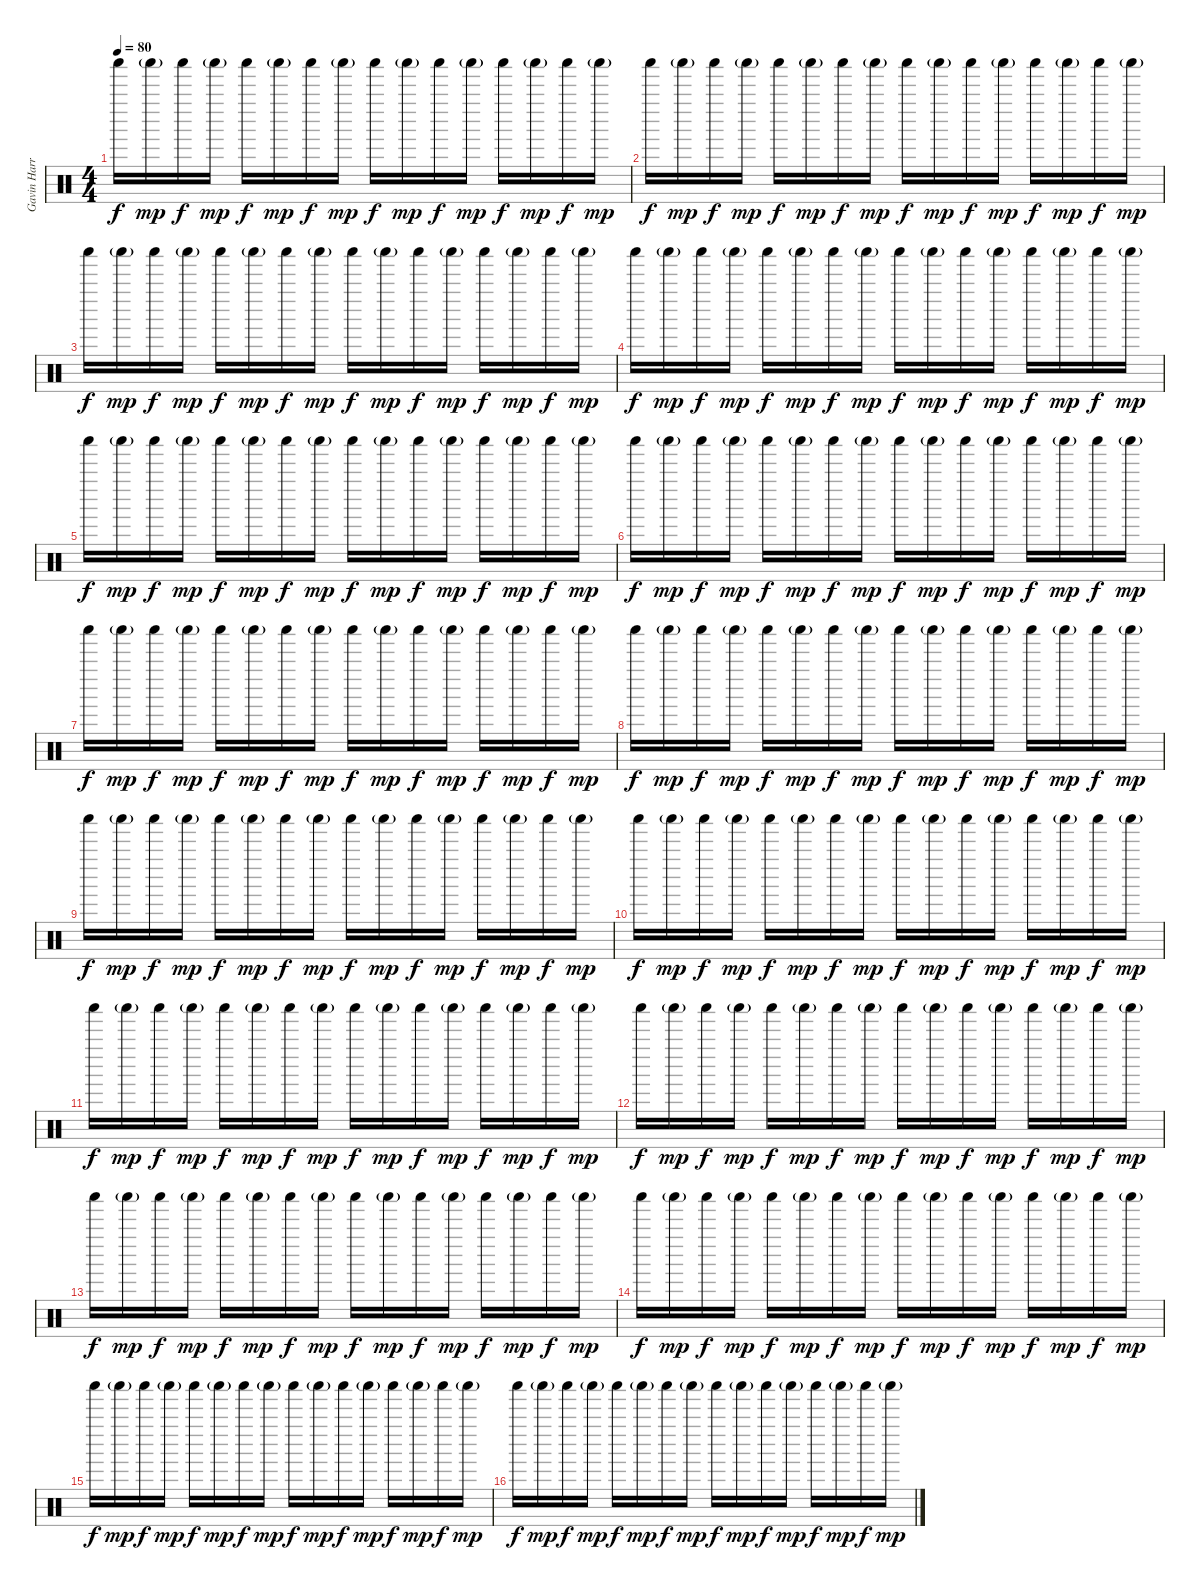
\track ("Gavin Harrison (Drums)" "Gavin Harr") {instrument percussion}
\staff {score}
\articulation defaults
\ts (4 4)
\tempo 80
\clef neutral
\ks c "Shaker (hit)".16{dy f volume 4} "Shaker (hit)"{g}.16{dy mp} "Shaker (hit)".16{dy f} "Shaker (hit)"{g}.16{dy mp} "Shaker (hit)".16{dy f} "Shaker (hit)"{g}.16{dy mp} "Shaker (hit)".16{dy f} "Shaker (hit)"{g}.16{dy mp} "Shaker (hit)".16{dy f volume 6} "Shaker (hit)"{g}.16{dy mp} "Shaker (hit)".16{dy f} "Shaker (hit)"{g}.16{dy mp} "Shaker (hit)".16{dy f} "Shaker (hit)"{g}.16{dy mp} "Shaker (hit)".16{dy f} "Shaker (hit)"{g}.16{dy mp}
|
"Shaker (hit)".16{dy f volume 7} "Shaker (hit)"{g}.16{dy mp} "Shaker (hit)".16{dy f} "Shaker (hit)"{g}.16{dy mp} "Shaker (hit)".16{dy f} "Shaker (hit)"{g}.16{dy mp} "Shaker (hit)".16{dy f} "Shaker (hit)"{g}.16{dy mp} "Shaker (hit)".16{dy f volume 8} "Shaker (hit)"{g}.16{dy mp} "Shaker (hit)".16{dy f} "Shaker (hit)"{g}.16{dy mp} "Shaker (hit)".16{dy f} "Shaker (hit)"{g}.16{dy mp} "Shaker (hit)".16{dy f} "Shaker (hit)"{g}.16{dy mp} |
"Shaker (hit)".16{dy f volume 9} "Shaker (hit)"{g}.16{dy mp} "Shaker (hit)".16{dy f} "Shaker (hit)"{g}.16{dy mp} "Shaker (hit)".16{dy f} "Shaker (hit)"{g}.16{dy mp} "Shaker (hit)".16{dy f} "Shaker (hit)"{g}.16{dy mp} "Shaker (hit)".16{dy f volume 10} "Shaker (hit)"{g}.16{dy mp} "Shaker (hit)".16{dy f} "Shaker (hit)"{g}.16{dy mp} "Shaker (hit)".16{dy f} "Shaker (hit)"{g}.16{dy mp} "Shaker (hit)".16{dy f} "Shaker (hit)"{g}.16{dy mp} |
"Shaker (hit)".16{dy f volume 11} "Shaker (hit)"{g}.16{dy mp} "Shaker (hit)".16{dy f} "Shaker (hit)"{g}.16{dy mp} "Shaker (hit)".16{dy f} "Shaker (hit)"{g}.16{dy mp} "Shaker (hit)".16{dy f} "Shaker (hit)"{g}.16{dy mp} "Shaker (hit)".16{dy f volume 12} "Shaker (hit)"{g}.16{dy mp} "Shaker (hit)".16{dy f} "Shaker (hit)"{g}.16{dy mp} "Shaker (hit)".16{dy f} "Shaker (hit)"{g}.16{dy mp} "Shaker (hit)".16{dy f} "Shaker (hit)"{g}.16{dy mp} |
"Shaker (hit)".16{dy f volume 13} "Shaker (hit)"{g}.16{dy mp} "Shaker (hit)".16{dy f} "Shaker (hit)"{g}.16{dy mp} "Shaker (hit)".16{dy f} "Shaker (hit)"{g}.16{dy mp} "Shaker (hit)".16{dy f} "Shaker (hit)"{g}.16{dy mp} "Shaker (hit)".16{dy f} "Shaker (hit)"{g}.16{dy mp} "Shaker (hit)".16{dy f} "Shaker (hit)"{g}.16{dy mp} "Shaker (hit)".16{dy f} "Shaker (hit)"{g}.16{dy mp} "Shaker (hit)".16{dy f} "Shaker (hit)"{g}.16{dy mp} |
"Shaker (hit)".16{dy f} "Shaker (hit)"{g}.16{dy mp} "Shaker (hit)".16{dy f} "Shaker (hit)"{g}.16{dy mp} "Shaker (hit)".16{dy f} "Shaker (hit)"{g}.16{dy mp} "Shaker (hit)".16{dy f} "Shaker (hit)"{g}.16{dy mp} "Shaker (hit)".16{dy f} "Shaker (hit)"{g}.16{dy mp} "Shaker (hit)".16{dy f} "Shaker (hit)"{g}.16{dy mp} "Shaker (hit)".16{dy f} "Shaker (hit)"{g}.16{dy mp} "Shaker (hit)".16{dy f} "Shaker (hit)"{g}.16{dy mp} |
"Shaker (hit)".16{dy f} "Shaker (hit)"{g}.16{dy mp} "Shaker (hit)".16{dy f} "Shaker (hit)"{g}.16{dy mp} "Shaker (hit)".16{dy f} "Shaker (hit)"{g}.16{dy mp} "Shaker (hit)".16{dy f} "Shaker (hit)"{g}.16{dy mp} "Shaker (hit)".16{dy f} "Shaker (hit)"{g}.16{dy mp} "Shaker (hit)".16{dy f} "Shaker (hit)"{g}.16{dy mp} "Shaker (hit)".16{dy f} "Shaker (hit)"{g}.16{dy mp} "Shaker (hit)".16{dy f} "Shaker (hit)"{g}.16{dy mp} |
"Shaker (hit)".16{dy f} "Shaker (hit)"{g}.16{dy mp} "Shaker (hit)".16{dy f} "Shaker (hit)"{g}.16{dy mp} "Shaker (hit)".16{dy f} "Shaker (hit)"{g}.16{dy mp} "Shaker (hit)".16{dy f} "Shaker (hit)"{g}.16{dy mp} "Shaker (hit)".16{dy f} "Shaker (hit)"{g}.16{dy mp} "Shaker (hit)".16{dy f} "Shaker (hit)"{g}.16{dy mp} "Shaker (hit)".16{dy f} "Shaker (hit)"{g}.16{dy mp} "Shaker (hit)".16{dy f} "Shaker (hit)"{g}.16{dy mp} |
"Shaker (hit)".16{dy f} "Shaker (hit)"{g}.16{dy mp} "Shaker (hit)".16{dy f} "Shaker (hit)"{g}.16{dy mp} "Shaker (hit)".16{dy f} "Shaker (hit)"{g}.16{dy mp} "Shaker (hit)".16{dy f} "Shaker (hit)"{g}.16{dy mp} "Shaker (hit)".16{dy f} "Shaker (hit)"{g}.16{dy mp} "Shaker (hit)".16{dy f} "Shaker (hit)"{g}.16{dy mp} "Shaker (hit)".16{dy f} "Shaker (hit)"{g}.16{dy mp} "Shaker (hit)".16{dy f} "Shaker (hit)"{g}.16{dy mp} |
"Shaker (hit)".16{dy f} "Shaker (hit)"{g}.16{dy mp} "Shaker (hit)".16{dy f} "Shaker (hit)"{g}.16{dy mp} "Shaker (hit)".16{dy f} "Shaker (hit)"{g}.16{dy mp} "Shaker (hit)".16{dy f} "Shaker (hit)"{g}.16{dy mp} "Shaker (hit)".16{dy f} "Shaker (hit)"{g}.16{dy mp} "Shaker (hit)".16{dy f} "Shaker (hit)"{g}.16{dy mp} "Shaker (hit)".16{dy f} "Shaker (hit)"{g}.16{dy mp} "Shaker (hit)".16{dy f} "Shaker (hit)"{g}.16{dy mp} |
"Shaker (hit)".16{dy f} "Shaker (hit)"{g}.16{dy mp} "Shaker (hit)".16{dy f} "Shaker (hit)"{g}.16{dy mp} "Shaker (hit)".16{dy f} "Shaker (hit)"{g}.16{dy mp} "Shaker (hit)".16{dy f} "Shaker (hit)"{g}.16{dy mp} "Shaker (hit)".16{dy f} "Shaker (hit)"{g}.16{dy mp} "Shaker (hit)".16{dy f} "Shaker (hit)"{g}.16{dy mp} "Shaker (hit)".16{dy f} "Shaker (hit)"{g}.16{dy mp} "Shaker (hit)".16{dy f} "Shaker (hit)"{g}.16{dy mp} |
"Shaker (hit)".16{dy f} "Shaker (hit)"{g}.16{dy mp} "Shaker (hit)".16{dy f} "Shaker (hit)"{g}.16{dy mp} "Shaker (hit)".16{dy f} "Shaker (hit)"{g}.16{dy mp} "Shaker (hit)".16{dy f} "Shaker (hit)"{g}.16{dy mp} "Shaker (hit)".16{dy f} "Shaker (hit)"{g}.16{dy mp} "Shaker (hit)".16{dy f} "Shaker (hit)"{g}.16{dy mp} "Shaker (hit)".16{dy f} "Shaker (hit)"{g}.16{dy mp} "Shaker (hit)".16{dy f} "Shaker (hit)"{g}.16{dy mp} |
"Shaker (hit)".16{dy f} "Shaker (hit)"{g}.16{dy mp} "Shaker (hit)".16{dy f} "Shaker (hit)"{g}.16{dy mp} "Shaker (hit)".16{dy f} "Shaker (hit)"{g}.16{dy mp} "Shaker (hit)".16{dy f} "Shaker (hit)"{g}.16{dy mp} "Shaker (hit)".16{dy f} "Shaker (hit)"{g}.16{dy mp} "Shaker (hit)".16{dy f} "Shaker (hit)"{g}.16{dy mp} "Shaker (hit)".16{dy f} "Shaker (hit)"{g}.16{dy mp} "Shaker (hit)".16{dy f} "Shaker (hit)"{g}.16{dy mp} |
"Shaker (hit)".16{dy f} "Shaker (hit)"{g}.16{dy mp} "Shaker (hit)".16{dy f} "Shaker (hit)"{g}.16{dy mp} "Shaker (hit)".16{dy f} "Shaker (hit)"{g}.16{dy mp} "Shaker (hit)".16{dy f} "Shaker (hit)"{g}.16{dy mp} "Shaker (hit)".16{dy f} "Shaker (hit)"{g}.16{dy mp} "Shaker (hit)".16{dy f} "Shaker (hit)"{g}.16{dy mp} "Shaker (hit)".16{dy f} "Shaker (hit)"{g}.16{dy mp} "Shaker (hit)".16{dy f} "Shaker (hit)"{g}.16{dy mp} |
"Shaker (hit)".16{dy f} "Shaker (hit)"{g}.16{dy mp} "Shaker (hit)".16{dy f} "Shaker (hit)"{g}.16{dy mp} "Shaker (hit)".16{dy f} "Shaker (hit)"{g}.16{dy mp} "Shaker (hit)".16{dy f} "Shaker (hit)"{g}.16{dy mp} "Shaker (hit)".16{dy f} "Shaker (hit)"{g}.16{dy mp} "Shaker (hit)".16{dy f} "Shaker (hit)"{g}.16{dy mp} "Shaker (hit)".16{dy f} "Shaker (hit)"{g}.16{dy mp} "Shaker (hit)".16{dy f} "Shaker (hit)"{g}.16{dy mp} |
"Shaker (hit)".16{dy f} "Shaker (hit)"{g}.16{dy mp} "Shaker (hit)".16{dy f} "Shaker (hit)"{g}.16{dy mp} "Shaker (hit)".16{dy f} "Shaker (hit)"{g}.16{dy mp} "Shaker (hit)".16{dy f} "Shaker (hit)"{g}.16{dy mp} "Shaker (hit)".16{dy f} "Shaker (hit)"{g}.16{dy mp} "Shaker (hit)".16{dy f} "Shaker (hit)"{g}.16{dy mp} "Shaker (hit)".16{dy f} "Shaker (hit)"{g}.16{dy mp} "Shaker (hit)".16{dy f} "Shaker (hit)"{g}.16{dy mp}
